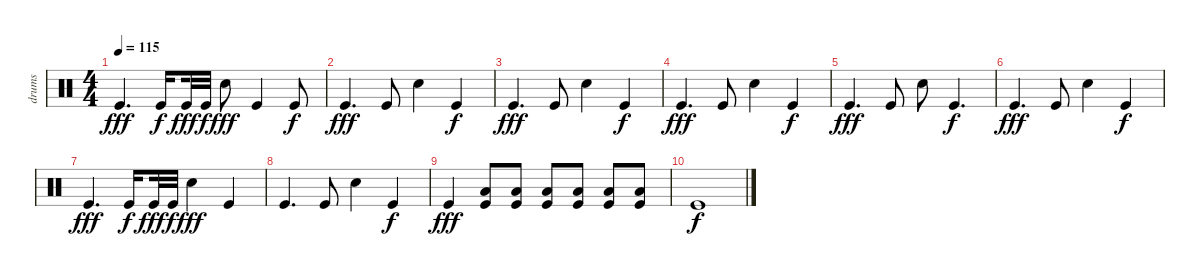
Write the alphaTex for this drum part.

\track ("drums" "drums") {instrument percussion}
\staff {score}
\articulation defaults
\ts (4 4)
\tempo 115
\clef neutral
\ks c "Kick (hit)".4{d dy fff} "Kick (hit)".16{dy f beam splitsecondary} "Kick (hit)".32{dy fff} "Kick (hit)".32{dy f} "Electric Snare (hit)".8{dy fff} "Kick (hit)".4 "Kick (hit)".8{dy f}
|
"Kick (hit)".4{d dy fff} "Kick (hit)".8 "Electric Snare (hit)".4 "Kick (hit)".4{dy f} |
"Kick (hit)".4{d dy fff} "Kick (hit)".8 "Electric Snare (hit)".4 "Kick (hit)".4{dy f} |
"Kick (hit)".4{d dy fff} "Kick (hit)".8 "Electric Snare (hit)".4 "Kick (hit)".4{dy f} |
"Kick (hit)".4{d dy fff} "Kick (hit)".8 "Electric Snare (hit)".8 "Kick (hit)".4{d dy f} |
"Kick (hit)".4{d dy fff} "Kick (hit)".8 "Electric Snare (hit)".4 "Kick (hit)".4{dy f} |
"Kick (hit)".4{d dy fff} "Kick (hit)".16{dy f beam splitsecondary} "Kick (hit)".32{dy fff} "Kick (hit)".32{dy f} "Electric Snare (hit)".4{dy fff} "Kick (hit)".4 |
"Kick (hit)".4{d} "Kick (hit)".8 "Electric Snare (hit)".4 "Kick (hit)".4{dy f} |
"Kick (hit)".4{dy fff} ("Low Floor Tom (hit)" "Kick (hit)").8 ("Low Floor Tom (hit)" "Kick (hit)").8 ("Low Floor Tom (hit)" "Kick (hit)").8 ("Low Floor Tom (hit)" "Kick (hit)").8 ("Low Floor Tom (hit)" "Kick (hit)").8 ("Low Floor Tom (hit)" "Kick (hit)").8 |
"Kick (hit)".1{dy f}
